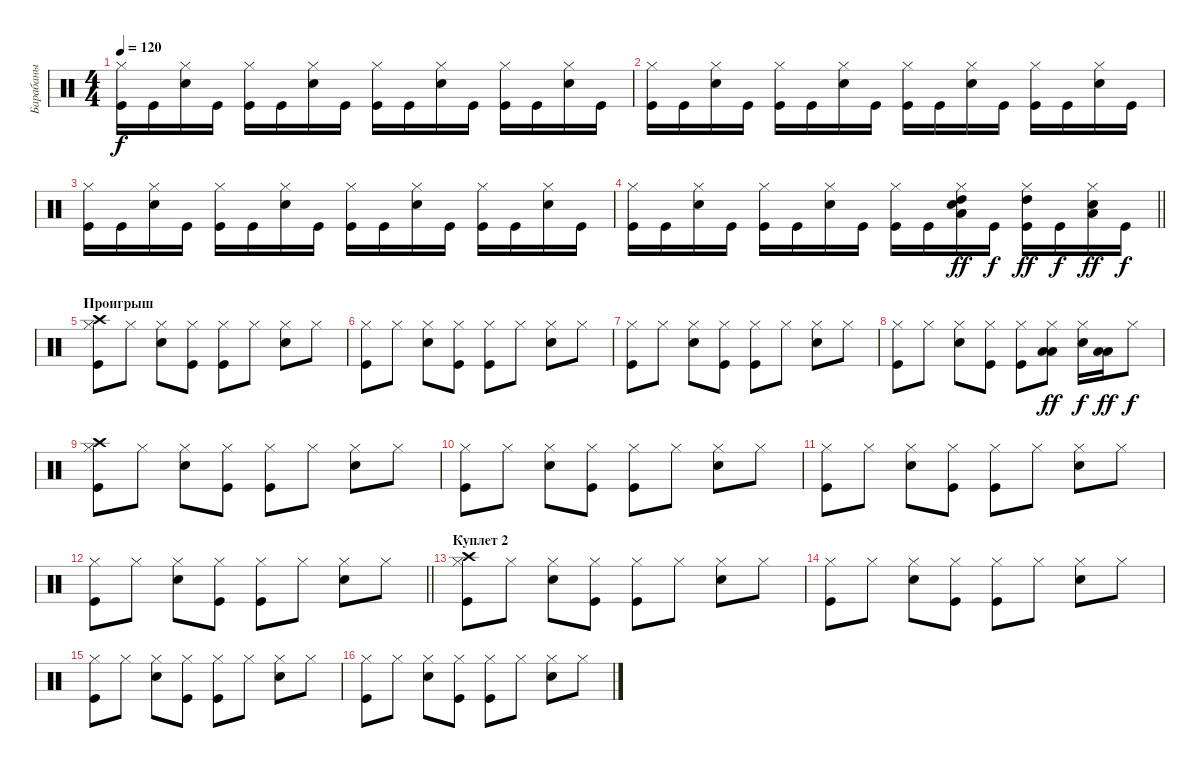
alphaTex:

\track ("Барабаны" "Барабаны") {instrument percussion}
\staff {score}
\articulation defaults
\ts (4 4)
\tempo 120
\clef neutral
\ks c
("Kick (hit)" "Hi-Hat (closed)").16{dy f} "Kick (hit)".16 ("Snare (hit) 2" "Hi-Hat (closed)").16 "Kick (hit)".16 ("Kick (hit)" "Hi-Hat (closed)").16 "Kick (hit)".16 ("Snare (hit) 2" "Hi-Hat (closed)").16 "Kick (hit)".16 ("Kick (hit)" "Hi-Hat (closed)").16 "Kick (hit)".16 ("Snare (hit) 2" "Hi-Hat (closed)").16 "Kick (hit)".16 ("Kick (hit)" "Hi-Hat (closed)").16 "Kick (hit)".16 ("Snare (hit) 2" "Hi-Hat (closed)").16 "Kick (hit)".16 |
("Kick (hit)" "Hi-Hat (closed)").16 "Kick (hit)".16 ("Snare (hit) 2" "Hi-Hat (closed)").16 "Kick (hit)".16 ("Kick (hit)" "Hi-Hat (closed)").16 "Kick (hit)".16 ("Snare (hit) 2" "Hi-Hat (closed)").16 "Kick (hit)".16 ("Kick (hit)" "Hi-Hat (closed)").16 "Kick (hit)".16 ("Snare (hit) 2" "Hi-Hat (closed)").16 "Kick (hit)".16 ("Kick (hit)" "Hi-Hat (closed)").16 "Kick (hit)".16 ("Snare (hit) 2" "Hi-Hat (closed)").16 "Kick (hit)".16 |
("Kick (hit)" "Hi-Hat (closed)").16 "Kick (hit)".16 ("Snare (hit) 2" "Hi-Hat (closed)").16 "Kick (hit)".16 ("Kick (hit)" "Hi-Hat (closed)").16 "Kick (hit)".16 ("Snare (hit) 2" "Hi-Hat (closed)").16 "Kick (hit)".16 ("Kick (hit)" "Hi-Hat (closed)").16 "Kick (hit)".16 ("Snare (hit) 2" "Hi-Hat (closed)").16 "Kick (hit)".16 ("Kick (hit)" "Hi-Hat (closed)").16 "Kick (hit)".16 ("Snare (hit) 2" "Hi-Hat (closed)").16 "Kick (hit)".16 |
\barLineRight lightlight
("Kick (hit)" "Hi-Hat (closed)").16 "Kick (hit)".16 ("Snare (hit) 2" "Hi-Hat (closed)").16 "Kick (hit)".16 ("Kick (hit)" "Hi-Hat (closed)").16 "Kick (hit)".16 ("Snare (hit) 2" "Hi-Hat (closed)").16 "Kick (hit)".16 ("Kick (hit)" "Hi-Hat (closed)").16 "Kick (hit)".16 ("Snare (hit) 2" "Hi-Hat (closed)" "Low Floor Tom (hit)" "High Tom (hit)").16{dy ff} "Kick (hit)".16{dy f} ("Kick (hit)" "Hi-Hat (closed)" "High Tom (hit)").16{dy ff} "Kick (hit)".16{dy f} ("Snare (hit) 2" "Hi-Hat (closed)" "Low Floor Tom (hit)").16{dy ff} "Kick (hit)".16{dy f} |
\section ("" "Проигрыш")
("Kick (hit)" "Hi-Hat (closed)" "Crash high (hit)").8 "Hi-Hat (closed)".8 ("Snare (hit) 2" "Hi-Hat (closed)").8 ("Kick (hit)" "Hi-Hat (closed)").8 ("Kick (hit)" "Hi-Hat (closed)").8 "Hi-Hat (closed)".8 ("Snare (hit) 2" "Hi-Hat (closed)").8 "Hi-Hat (closed)".8 |
("Kick (hit)" "Hi-Hat (closed)").8 "Hi-Hat (closed)".8 ("Snare (hit) 2" "Hi-Hat (closed)").8 ("Kick (hit)" "Hi-Hat (closed)").8 ("Kick (hit)" "Hi-Hat (closed)").8 "Hi-Hat (closed)".8 ("Snare (hit) 2" "Hi-Hat (closed)").8 "Hi-Hat (closed)".8 |
("Kick (hit)" "Hi-Hat (closed)").8 "Hi-Hat (closed)".8 ("Snare (hit) 2" "Hi-Hat (closed)").8 ("Kick (hit)" "Hi-Hat (closed)").8 ("Kick (hit)" "Hi-Hat (closed)").8 "Hi-Hat (closed)".8 ("Snare (hit) 2" "Hi-Hat (closed)").8 "Hi-Hat (closed)".8 |
("Kick (hit)" "Hi-Hat (closed)").8 "Hi-Hat (closed)".8 ("Snare (hit) 2" "Hi-Hat (closed)").8 ("Kick (hit)" "Hi-Hat (closed)").8 ("Kick (hit)" "Hi-Hat (closed)").8 ("Hi-Hat (closed)" "Low Tom (hit)" "Low Floor Tom (hit)").8{dy ff} ("Snare (hit) 2" "Hi-Hat (closed)").16{dy f} ("Low Tom (hit)" "Low Floor Tom (hit)").16{dy ff} "Hi-Hat (closed)".8{dy f} |
("Kick (hit)" "Hi-Hat (closed)" "Crash high (hit)").8 "Hi-Hat (closed)".8 ("Snare (hit) 2" "Hi-Hat (closed)").8 ("Kick (hit)" "Hi-Hat (closed)").8 ("Kick (hit)" "Hi-Hat (closed)").8 "Hi-Hat (closed)".8 ("Snare (hit) 2" "Hi-Hat (closed)").8 "Hi-Hat (closed)".8 |
("Kick (hit)" "Hi-Hat (closed)").8 "Hi-Hat (closed)".8 ("Snare (hit) 2" "Hi-Hat (closed)").8 ("Kick (hit)" "Hi-Hat (closed)").8 ("Kick (hit)" "Hi-Hat (closed)").8 "Hi-Hat (closed)".8 ("Snare (hit) 2" "Hi-Hat (closed)").8 "Hi-Hat (closed)".8 |
("Kick (hit)" "Hi-Hat (closed)").8 "Hi-Hat (closed)".8 ("Snare (hit) 2" "Hi-Hat (closed)").8 ("Kick (hit)" "Hi-Hat (closed)").8 ("Kick (hit)" "Hi-Hat (closed)").8 "Hi-Hat (closed)".8 ("Snare (hit) 2" "Hi-Hat (closed)").8 "Hi-Hat (closed)".8 |
\barLineRight lightlight
("Kick (hit)" "Hi-Hat (closed)").8 "Hi-Hat (closed)".8 ("Snare (hit) 2" "Hi-Hat (closed)").8 ("Kick (hit)" "Hi-Hat (closed)").8 ("Kick (hit)" "Hi-Hat (closed)").8 "Hi-Hat (closed)".8 ("Snare (hit) 2" "Hi-Hat (closed)").8 "Hi-Hat (closed)".8 |
\section ("" "Куплет 2")
("Kick (hit)" "Hi-Hat (closed)" "Crash high (hit)").8 "Hi-Hat (closed)".8 ("Snare (hit) 2" "Hi-Hat (closed)").8 ("Kick (hit)" "Hi-Hat (closed)").8 ("Kick (hit)" "Hi-Hat (closed)").8 "Hi-Hat (closed)".8 ("Snare (hit) 2" "Hi-Hat (closed)").8 "Hi-Hat (closed)".8 |
("Kick (hit)" "Hi-Hat (closed)").8 "Hi-Hat (closed)".8 ("Snare (hit) 2" "Hi-Hat (closed)").8 ("Kick (hit)" "Hi-Hat (closed)").8 ("Kick (hit)" "Hi-Hat (closed)").8 "Hi-Hat (closed)".8 ("Snare (hit) 2" "Hi-Hat (closed)").8 "Hi-Hat (closed)".8 |
("Kick (hit)" "Hi-Hat (closed)").8 "Hi-Hat (closed)".8 ("Snare (hit) 2" "Hi-Hat (closed)").8 ("Kick (hit)" "Hi-Hat (closed)").8 ("Kick (hit)" "Hi-Hat (closed)").8 "Hi-Hat (closed)".8 ("Snare (hit) 2" "Hi-Hat (closed)").8 "Hi-Hat (closed)".8 |
("Kick (hit)" "Hi-Hat (closed)").8 "Hi-Hat (closed)".8 ("Snare (hit) 2" "Hi-Hat (closed)").8 ("Kick (hit)" "Hi-Hat (closed)").8 ("Kick (hit)" "Hi-Hat (closed)").8 "Hi-Hat (closed)".8 ("Snare (hit) 2" "Hi-Hat (closed)").8 "Hi-Hat (closed)".8
